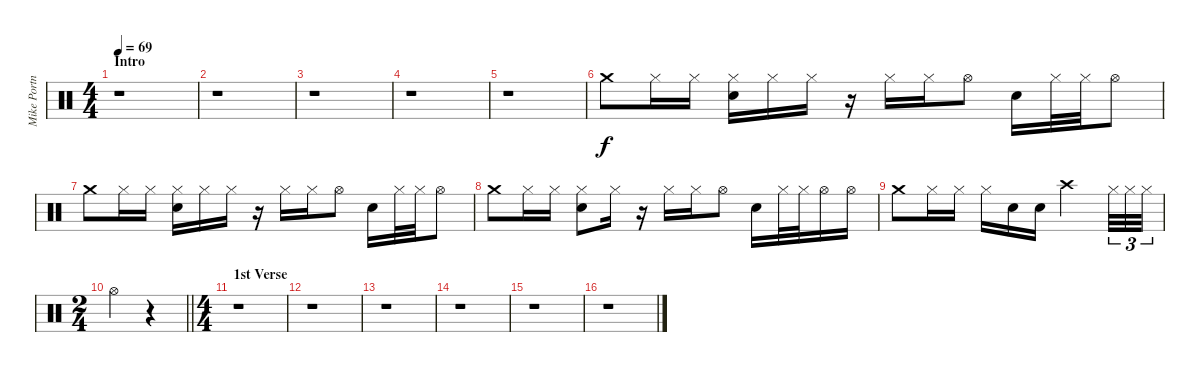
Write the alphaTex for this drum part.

\track ("Mike Portnoy" "Mike Portn") {instrument percussion}
\staff {score}
\articulation defaults
\ts (4 4)
\section ("" "Intro")
\tempo 69
\clef neutral
\ks c
r.1{dy f} |
r.1 |
r.1 |
r.1 |
r.1 |
"Crash medium (hit)".8 "Hi-Hat (closed)".16 "Hi-Hat (closed)".16 ("Snare (hit) 2" "Hi-Hat (closed)").16 "Hi-Hat (closed)".16 "Hi-Hat (closed)".16 r.16 "Hi-Hat (closed)".16 "Hi-Hat (closed)".16 "Hi-Hat (open)".8 "Snare (hit) 2".16 "Hi-Hat (closed)".32 "Hi-Hat (closed)".32 "Hi-Hat (open)".8 |
"Crash medium (hit)".8 "Hi-Hat (closed)".16 "Hi-Hat (closed)".16 ("Snare (hit) 2" "Hi-Hat (closed)").16 "Hi-Hat (closed)".16 "Hi-Hat (closed)".16 r.16 "Hi-Hat (closed)".16 "Hi-Hat (closed)".16 "Hi-Hat (open)".8 "Snare (hit) 2".16 "Hi-Hat (closed)".32 "Hi-Hat (closed)".32 "Hi-Hat (open)".8 |
"Crash medium (hit)".8 "Hi-Hat (closed)".16 "Hi-Hat (closed)".16 ("Snare (hit) 2" "Hi-Hat (closed)").8 "Hi-Hat (closed)".16 r.16 "Hi-Hat (closed)".16 "Hi-Hat (closed)".16 "Hi-Hat (open)".8 "Snare (hit) 2".16 "Hi-Hat (closed)".32 "Hi-Hat (closed)".32 "Hi-Hat (open)".16 "Hi-Hat (open)".16 |
"Crash medium (hit)".8 "Hi-Hat (closed)".16 "Hi-Hat (closed)".16 "Hi-Hat (closed)".16 "Snare (hit) 2".16 "Snare (hit) 2".16 "Crash high (hit)".2 "Hi-Hat (closed)".32{tu (3 2)} "Hi-Hat (closed)".32{tu (3 2)} "Hi-Hat (closed)".32{tu (3 2)} |
\ts (2 4)
\barLineRight lightlight "Hi-Hat (open)".4
r.4 |
\ts (4 4)
\section ("" "1st Verse")
r.1 |
r.1 |
r.1 |
r.1 |
r.1 |
r.1
